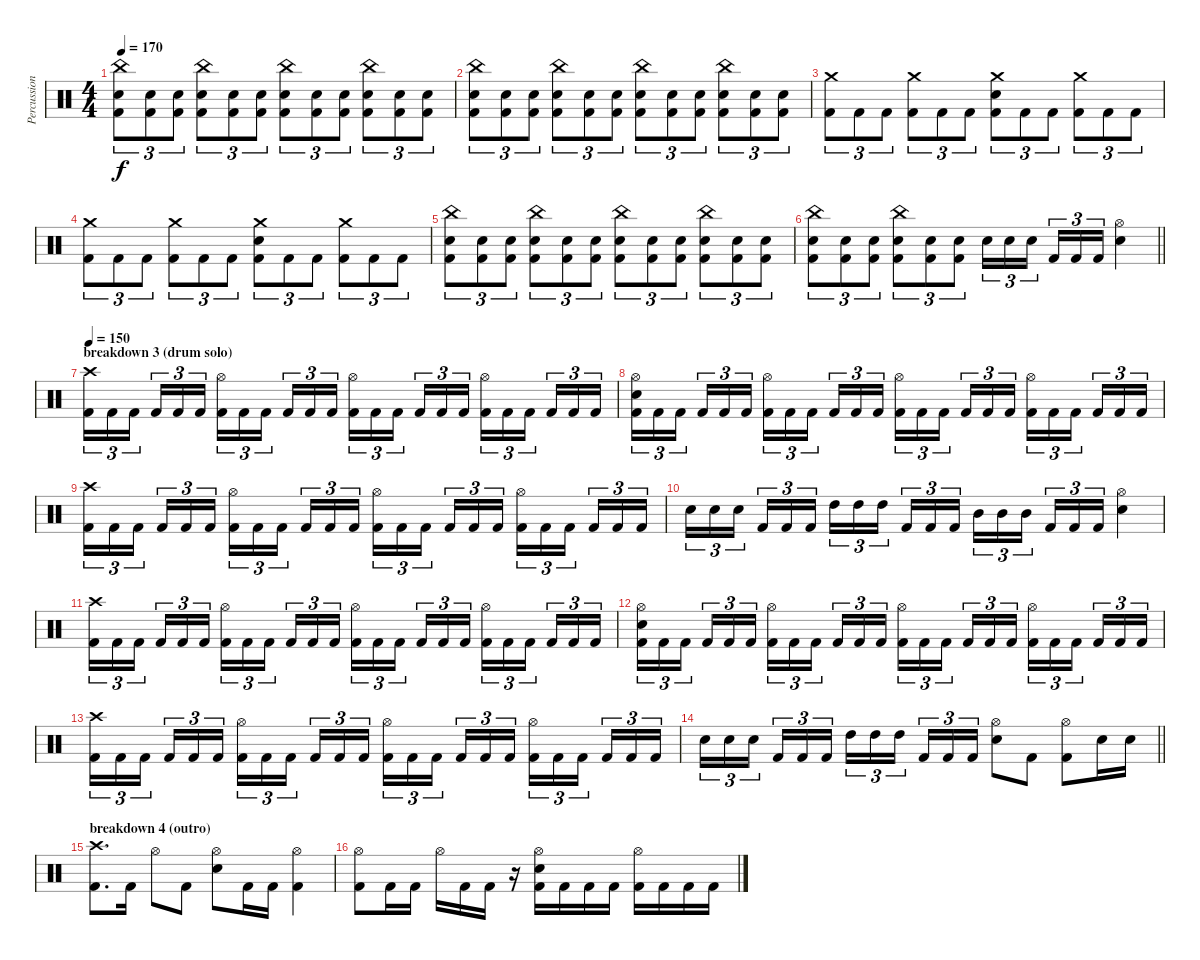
\track ("Percussion" "Percussion") {instrument percussion}
\staff {score}
\articulation defaults
\ts (4 4)
\tempo 170
\clef neutral
\ks c
("China (hit)" "Electric Snare (hit)" "Kick (hit) 2").8{tu (3 2) dy f} ("Electric Snare (hit)" "Kick (hit) 2").8{tu (3 2)} ("Electric Snare (hit)" "Kick (hit) 2").8{tu (3 2)} ("China (hit)" "Electric Snare (hit)" "Kick (hit) 2").8{tu (3 2)} ("Electric Snare (hit)" "Kick (hit) 2").8{tu (3 2)} ("Electric Snare (hit)" "Kick (hit) 2").8{tu (3 2)} ("China (hit)" "Electric Snare (hit)" "Kick (hit) 2").8{tu (3 2)} ("Electric Snare (hit)" "Kick (hit) 2").8{tu (3 2)} ("Electric Snare (hit)" "Kick (hit) 2").8{tu (3 2)} ("China (hit)" "Electric Snare (hit)" "Kick (hit) 2").8{tu (3 2)} ("Electric Snare (hit)" "Kick (hit) 2").8{tu (3 2)} ("Electric Snare (hit)" "Kick (hit) 2").8{tu (3 2)} |
("China (hit)" "Electric Snare (hit)" "Kick (hit) 2").8{tu (3 2)} ("Electric Snare (hit)" "Kick (hit) 2").8{tu (3 2)} ("Electric Snare (hit)" "Kick (hit) 2").8{tu (3 2)} ("China (hit)" "Electric Snare (hit)" "Kick (hit) 2").8{tu (3 2)} ("Electric Snare (hit)" "Kick (hit) 2").8{tu (3 2)} ("Electric Snare (hit)" "Kick (hit) 2").8{tu (3 2)} ("China (hit)" "Electric Snare (hit)" "Kick (hit) 2").8{tu (3 2)} ("Electric Snare (hit)" "Kick (hit) 2").8{tu (3 2)} ("Electric Snare (hit)" "Kick (hit) 2").8{tu (3 2)} ("China (hit)" "Electric Snare (hit)" "Kick (hit) 2").8{tu (3 2)} ("Electric Snare (hit)" "Kick (hit) 2").8{tu (3 2)} ("Electric Snare (hit)" "Kick (hit) 2").8{tu (3 2)} |
("Crash medium (hit)" "Kick (hit) 2").8{tu (3 2)} "Kick (hit) 2".8{tu (3 2)} "Kick (hit) 2".8{tu (3 2)} ("Crash medium (hit)" "Kick (hit) 2").8{tu (3 2)} "Kick (hit) 2".8{tu (3 2)} "Kick (hit) 2".8{tu (3 2)} ("Crash medium (hit)" "Electric Snare (hit)" "Kick (hit) 2").8{tu (3 2)} "Kick (hit) 2".8{tu (3 2)} "Kick (hit) 2".8{tu (3 2)} ("Crash medium (hit)" "Kick (hit) 2").8{tu (3 2)} "Kick (hit) 2".8{tu (3 2)} "Kick (hit) 2".8{tu (3 2)} |
("Crash medium (hit)" "Kick (hit) 2").8{tu (3 2)} "Kick (hit) 2".8{tu (3 2)} "Kick (hit) 2".8{tu (3 2)} ("Crash medium (hit)" "Kick (hit) 2").8{tu (3 2)} "Kick (hit) 2".8{tu (3 2)} "Kick (hit) 2".8{tu (3 2)} ("Crash medium (hit)" "Electric Snare (hit)" "Kick (hit) 2").8{tu (3 2)} "Kick (hit) 2".8{tu (3 2)} "Kick (hit) 2".8{tu (3 2)} ("Crash medium (hit)" "Kick (hit) 2").8{tu (3 2)} "Kick (hit) 2".8{tu (3 2)} "Kick (hit) 2".8{tu (3 2)} |
("China (hit)" "Electric Snare (hit)" "Kick (hit) 2").8{tu (3 2)} ("Electric Snare (hit)" "Kick (hit) 2").8{tu (3 2)} ("Electric Snare (hit)" "Kick (hit) 2").8{tu (3 2)} ("China (hit)" "Electric Snare (hit)" "Kick (hit) 2").8{tu (3 2)} ("Electric Snare (hit)" "Kick (hit) 2").8{tu (3 2)} ("Electric Snare (hit)" "Kick (hit) 2").8{tu (3 2)} ("China (hit)" "Electric Snare (hit)" "Kick (hit) 2").8{tu (3 2)} ("Electric Snare (hit)" "Kick (hit) 2").8{tu (3 2)} ("Electric Snare (hit)" "Kick (hit) 2").8{tu (3 2)} ("China (hit)" "Electric Snare (hit)" "Kick (hit) 2").8{tu (3 2)} ("Electric Snare (hit)" "Kick (hit) 2").8{tu (3 2)} ("Electric Snare (hit)" "Kick (hit) 2").8{tu (3 2)} |
\barLineRight lightlight
("China (hit)" "Electric Snare (hit)" "Kick (hit) 2").8{tu (3 2)} ("Electric Snare (hit)" "Kick (hit) 2").8{tu (3 2)} ("Electric Snare (hit)" "Kick (hit) 2").8{tu (3 2)} ("China (hit)" "Electric Snare (hit)" "Kick (hit) 2").8{tu (3 2)} ("Electric Snare (hit)" "Kick (hit) 2").8{tu (3 2)} ("Electric Snare (hit)" "Kick (hit) 2").8{tu (3 2)} "Electric Snare (hit)".16{tu (3 2)} "Electric Snare (hit)".16{tu (3 2)} "Electric Snare (hit)".16{tu (3 2) beam splitsecondary} "Kick (hit) 2".16{tu (3 2)} "Kick (hit) 2".16{tu (3 2)} "Kick (hit) 2".16{tu (3 2)} ("Hi-Hat (open)" "Electric Snare (hit)").4 |
\section ("" "breakdown 3 (drum solo)")
\tempo 150
("Crash high (hit)" "Kick (hit) 2").16{tu (3 2)} "Kick (hit) 2".16{tu (3 2)} "Kick (hit) 2".16{tu (3 2) beam splitsecondary} "Kick (hit) 2".16{tu (3 2)} "Kick (hit) 2".16{tu (3 2)} "Kick (hit) 2".16{tu (3 2)} ("Hi-Hat (open)" "Kick (hit) 2").16{tu (3 2)} "Kick (hit) 2".16{tu (3 2)} "Kick (hit) 2".16{tu (3 2) beam splitsecondary} "Kick (hit) 2".16{tu (3 2)} "Kick (hit) 2".16{tu (3 2)} "Kick (hit) 2".16{tu (3 2)} ("Hi-Hat (open)" "Kick (hit) 2").16{tu (3 2)} "Kick (hit) 2".16{tu (3 2)} "Kick (hit) 2".16{tu (3 2) beam splitsecondary} "Kick (hit) 2".16{tu (3 2)} "Kick (hit) 2".16{tu (3 2)} "Kick (hit) 2".16{tu (3 2)} ("Hi-Hat (open)" "Kick (hit) 2").16{tu (3 2)} "Kick (hit) 2".16{tu (3 2)} "Kick (hit) 2".16{tu (3 2) beam splitsecondary} "Kick (hit) 2".16{tu (3 2)} "Kick (hit) 2".16{tu (3 2)} "Kick (hit) 2".16{tu (3 2)} |
("Hi-Hat (open)" "Electric Snare (hit)" "Kick (hit) 2").16{tu (3 2)} "Kick (hit) 2".16{tu (3 2)} "Kick (hit) 2".16{tu (3 2) beam splitsecondary} "Kick (hit) 2".16{tu (3 2)} "Kick (hit) 2".16{tu (3 2)} "Kick (hit) 2".16{tu (3 2)} ("Hi-Hat (open)" "Kick (hit) 2").16{tu (3 2)} "Kick (hit) 2".16{tu (3 2)} "Kick (hit) 2".16{tu (3 2) beam splitsecondary} "Kick (hit) 2".16{tu (3 2)} "Kick (hit) 2".16{tu (3 2)} "Kick (hit) 2".16{tu (3 2)} ("Hi-Hat (open)" "Kick (hit) 2").16{tu (3 2)} "Kick (hit) 2".16{tu (3 2)} "Kick (hit) 2".16{tu (3 2) beam splitsecondary} "Kick (hit) 2".16{tu (3 2)} "Kick (hit) 2".16{tu (3 2)} "Kick (hit) 2".16{tu (3 2)} ("Hi-Hat (open)" "Kick (hit) 2").16{tu (3 2)} "Kick (hit) 2".16{tu (3 2)} "Kick (hit) 2".16{tu (3 2) beam splitsecondary} "Kick (hit) 2".16{tu (3 2)} "Kick (hit) 2".16{tu (3 2)} "Kick (hit) 2".16{tu (3 2)} |
("Crash high (hit)" "Kick (hit) 2").16{tu (3 2)} "Kick (hit) 2".16{tu (3 2)} "Kick (hit) 2".16{tu (3 2) beam splitsecondary} "Kick (hit) 2".16{tu (3 2)} "Kick (hit) 2".16{tu (3 2)} "Kick (hit) 2".16{tu (3 2)} ("Hi-Hat (open)" "Kick (hit) 2").16{tu (3 2)} "Kick (hit) 2".16{tu (3 2)} "Kick (hit) 2".16{tu (3 2) beam splitsecondary} "Kick (hit) 2".16{tu (3 2)} "Kick (hit) 2".16{tu (3 2)} "Kick (hit) 2".16{tu (3 2)} ("Hi-Hat (open)" "Kick (hit) 2").16{tu (3 2)} "Kick (hit) 2".16{tu (3 2)} "Kick (hit) 2".16{tu (3 2) beam splitsecondary} "Kick (hit) 2".16{tu (3 2)} "Kick (hit) 2".16{tu (3 2)} "Kick (hit) 2".16{tu (3 2)} ("Hi-Hat (open)" "Kick (hit) 2").16{tu (3 2)} "Kick (hit) 2".16{tu (3 2)} "Kick (hit) 2".16{tu (3 2) beam splitsecondary} "Kick (hit) 2".16{tu (3 2)} "Kick (hit) 2".16{tu (3 2)} "Kick (hit) 2".16{tu (3 2)} |
"Electric Snare (hit)".16{tu (3 2)} "Electric Snare (hit)".16{tu (3 2)} "Electric Snare (hit)".16{tu (3 2) beam splitsecondary} "Kick (hit) 2".16{tu (3 2)} "Kick (hit) 2".16{tu (3 2)} "Kick (hit) 2".16{tu (3 2)} "High Tom (hit)".16{tu (3 2)} "High Tom (hit)".16{tu (3 2)} "High Tom (hit)".16{tu (3 2) beam splitsecondary} "Kick (hit) 2".16{tu (3 2)} "Kick (hit) 2".16{tu (3 2)} "Kick (hit) 2".16{tu (3 2)} "Mid Tom (hit)".16{tu (3 2)} "Mid Tom (hit)".16{tu (3 2)} "Mid Tom (hit)".16{tu (3 2) beam splitsecondary} "Kick (hit) 2".16{tu (3 2)} "Kick (hit) 2".16{tu (3 2)} "Kick (hit) 2".16{tu (3 2)} ("Hi-Hat (open)" "Electric Snare (hit)").4 |
("Crash high (hit)" "Kick (hit) 2").16{tu (3 2)} "Kick (hit) 2".16{tu (3 2)} "Kick (hit) 2".16{tu (3 2) beam splitsecondary} "Kick (hit) 2".16{tu (3 2)} "Kick (hit) 2".16{tu (3 2)} "Kick (hit) 2".16{tu (3 2)} ("Hi-Hat (open)" "Kick (hit) 2").16{tu (3 2)} "Kick (hit) 2".16{tu (3 2)} "Kick (hit) 2".16{tu (3 2) beam splitsecondary} "Kick (hit) 2".16{tu (3 2)} "Kick (hit) 2".16{tu (3 2)} "Kick (hit) 2".16{tu (3 2)} ("Hi-Hat (open)" "Kick (hit) 2").16{tu (3 2)} "Kick (hit) 2".16{tu (3 2)} "Kick (hit) 2".16{tu (3 2) beam splitsecondary} "Kick (hit) 2".16{tu (3 2)} "Kick (hit) 2".16{tu (3 2)} "Kick (hit) 2".16{tu (3 2)} ("Hi-Hat (open)" "Kick (hit) 2").16{tu (3 2)} "Kick (hit) 2".16{tu (3 2)} "Kick (hit) 2".16{tu (3 2) beam splitsecondary} "Kick (hit) 2".16{tu (3 2)} "Kick (hit) 2".16{tu (3 2)} "Kick (hit) 2".16{tu (3 2)} |
("Hi-Hat (open)" "Electric Snare (hit)" "Kick (hit) 2").16{tu (3 2)} "Kick (hit) 2".16{tu (3 2)} "Kick (hit) 2".16{tu (3 2) beam splitsecondary} "Kick (hit) 2".16{tu (3 2)} "Kick (hit) 2".16{tu (3 2)} "Kick (hit) 2".16{tu (3 2)} ("Hi-Hat (open)" "Kick (hit) 2").16{tu (3 2)} "Kick (hit) 2".16{tu (3 2)} "Kick (hit) 2".16{tu (3 2) beam splitsecondary} "Kick (hit) 2".16{tu (3 2)} "Kick (hit) 2".16{tu (3 2)} "Kick (hit) 2".16{tu (3 2)} ("Hi-Hat (open)" "Kick (hit) 2").16{tu (3 2)} "Kick (hit) 2".16{tu (3 2)} "Kick (hit) 2".16{tu (3 2) beam splitsecondary} "Kick (hit) 2".16{tu (3 2)} "Kick (hit) 2".16{tu (3 2)} "Kick (hit) 2".16{tu (3 2)} ("Hi-Hat (open)" "Kick (hit) 2").16{tu (3 2)} "Kick (hit) 2".16{tu (3 2)} "Kick (hit) 2".16{tu (3 2) beam splitsecondary} "Kick (hit) 2".16{tu (3 2)} "Kick (hit) 2".16{tu (3 2)} "Kick (hit) 2".16{tu (3 2)} |
("Crash high (hit)" "Kick (hit) 2").16{tu (3 2)} "Kick (hit) 2".16{tu (3 2)} "Kick (hit) 2".16{tu (3 2) beam splitsecondary} "Kick (hit) 2".16{tu (3 2)} "Kick (hit) 2".16{tu (3 2)} "Kick (hit) 2".16{tu (3 2)} ("Hi-Hat (open)" "Kick (hit) 2").16{tu (3 2)} "Kick (hit) 2".16{tu (3 2)} "Kick (hit) 2".16{tu (3 2) beam splitsecondary} "Kick (hit) 2".16{tu (3 2)} "Kick (hit) 2".16{tu (3 2)} "Kick (hit) 2".16{tu (3 2)} ("Hi-Hat (open)" "Kick (hit) 2").16{tu (3 2)} "Kick (hit) 2".16{tu (3 2)} "Kick (hit) 2".16{tu (3 2) beam splitsecondary} "Kick (hit) 2".16{tu (3 2)} "Kick (hit) 2".16{tu (3 2)} "Kick (hit) 2".16{tu (3 2)} ("Hi-Hat (open)" "Kick (hit) 2").16{tu (3 2)} "Kick (hit) 2".16{tu (3 2)} "Kick (hit) 2".16{tu (3 2) beam splitsecondary} "Kick (hit) 2".16{tu (3 2)} "Kick (hit) 2".16{tu (3 2)} "Kick (hit) 2".16{tu (3 2)} |
\barLineRight lightlight "Electric Snare (hit)".16{tu (3 2)} "Electric Snare (hit)".16{tu (3 2)} "Electric Snare (hit)".16{tu (3 2) beam splitsecondary} "Kick (hit) 2".16{tu (3 2)} "Kick (hit) 2".16{tu (3 2)} "Kick (hit) 2".16{tu (3 2)} "High Tom (hit)".16{tu (3 2)} "High Tom (hit)".16{tu (3 2)} "High Tom (hit)".16{tu (3 2) beam splitsecondary} "Kick (hit) 2".16{tu (3 2)} "Kick (hit) 2".16{tu (3 2)} "Kick (hit) 2".16{tu (3 2)}
("Hi-Hat (open)" "Electric Snare (hit)").8 "Kick (hit) 2".8 ("Hi-Hat (open)" "Kick (hit) 2").8 "Electric Snare (hit)".16 "Electric Snare (hit)".16 |
\section ("" "breakdown 4 (outro)")
("Crash high (hit)" "Kick (hit) 2").8{d} "Kick (hit) 2".16 "Hi-Hat (open)".8 "Kick (hit) 2".8 ("Hi-Hat (open)" "Electric Snare (hit)").8 "Kick (hit) 2".16 "Kick (hit) 2".16 ("Hi-Hat (open)" "Kick (hit) 2").4 |
("Hi-Hat (open)" "Kick (hit) 2").8 "Kick (hit) 2".16 "Kick (hit) 2".16 "Hi-Hat (open)".16 "Kick (hit) 2".16 "Kick (hit) 2".16 r.16 ("Hi-Hat (open)" "Electric Snare (hit)" "Kick (hit) 2").16 "Kick (hit) 2".16 "Kick (hit) 2".16 "Kick (hit) 2".16 ("Hi-Hat (open)" "Kick (hit) 2").16 "Kick (hit) 2".16 "Kick (hit) 2".16 "Kick (hit) 2".16
